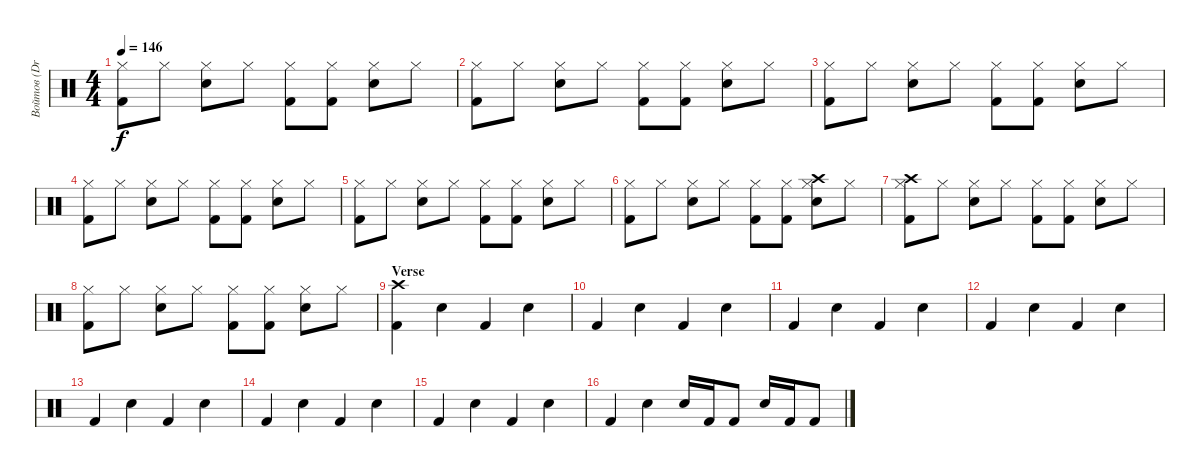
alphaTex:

\track ("Войтов (Drums)" "Войтов (Dr") {instrument percussion}
\staff {score}
\articulation defaults
\ts (4 4)
\tempo 146
\clef neutral
\ks c
("Kick (hit) 2" "Hi-Hat (closed)").8{dy f} "Hi-Hat (closed)".8 ("Electric Snare (hit)" "Hi-Hat (closed)").8 "Hi-Hat (closed)".8 ("Kick (hit) 2" "Hi-Hat (closed)").8 ("Kick (hit) 2" "Hi-Hat (closed)").8 ("Electric Snare (hit)" "Hi-Hat (closed)").8 "Hi-Hat (closed)".8 |
("Kick (hit) 2" "Hi-Hat (closed)").8 "Hi-Hat (closed)".8 ("Electric Snare (hit)" "Hi-Hat (closed)").8 "Hi-Hat (closed)".8 ("Kick (hit) 2" "Hi-Hat (closed)").8 ("Kick (hit) 2" "Hi-Hat (closed)").8 ("Electric Snare (hit)" "Hi-Hat (closed)").8 "Hi-Hat (closed)".8 |
("Kick (hit) 2" "Hi-Hat (closed)").8 "Hi-Hat (closed)".8 ("Electric Snare (hit)" "Hi-Hat (closed)").8 "Hi-Hat (closed)".8 ("Kick (hit) 2" "Hi-Hat (closed)").8 ("Kick (hit) 2" "Hi-Hat (closed)").8 ("Electric Snare (hit)" "Hi-Hat (closed)").8 "Hi-Hat (closed)".8 |
("Kick (hit) 2" "Hi-Hat (closed)").8 "Hi-Hat (closed)".8 ("Electric Snare (hit)" "Hi-Hat (closed)").8 "Hi-Hat (closed)".8 ("Kick (hit) 2" "Hi-Hat (closed)").8 ("Kick (hit) 2" "Hi-Hat (closed)").8 ("Electric Snare (hit)" "Hi-Hat (closed)").8 "Hi-Hat (closed)".8 |
("Kick (hit) 2" "Hi-Hat (closed)").8 "Hi-Hat (closed)".8 ("Electric Snare (hit)" "Hi-Hat (closed)").8 "Hi-Hat (closed)".8 ("Kick (hit) 2" "Hi-Hat (closed)").8 ("Kick (hit) 2" "Hi-Hat (closed)").8 ("Electric Snare (hit)" "Hi-Hat (closed)").8 "Hi-Hat (closed)".8 |
("Kick (hit) 2" "Hi-Hat (closed)").8 "Hi-Hat (closed)".8 ("Electric Snare (hit)" "Hi-Hat (closed)").8 "Hi-Hat (closed)".8 ("Kick (hit) 2" "Hi-Hat (closed)").8 ("Kick (hit) 2" "Hi-Hat (closed)").8 ("Electric Snare (hit)" "Crash high (hit)" "Hi-Hat (closed)").8 "Hi-Hat (closed)".8 |
("Kick (hit) 2" "Crash high (hit)" "Hi-Hat (closed)").8 "Hi-Hat (closed)".8 ("Electric Snare (hit)" "Hi-Hat (closed)").8 "Hi-Hat (closed)".8 ("Kick (hit) 2" "Hi-Hat (closed)").8 ("Kick (hit) 2" "Hi-Hat (closed)").8 ("Electric Snare (hit)" "Hi-Hat (closed)").8 "Hi-Hat (closed)".8 |
("Kick (hit) 2" "Hi-Hat (closed)").8 "Hi-Hat (closed)".8 ("Electric Snare (hit)" "Hi-Hat (closed)").8 "Hi-Hat (closed)".8 ("Kick (hit) 2" "Hi-Hat (closed)").8 ("Kick (hit) 2" "Hi-Hat (closed)").8 ("Electric Snare (hit)" "Hi-Hat (closed)").8 "Hi-Hat (closed)".8 |
\section ("" "Verse")
("Kick (hit) 2" "Crash high (hit)").4 "Electric Snare (hit)".4 "Kick (hit) 2".4 "Electric Snare (hit)".4 |
"Kick (hit) 2".4 "Electric Snare (hit)".4 "Kick (hit) 2".4 "Electric Snare (hit)".4 |
"Kick (hit) 2".4 "Electric Snare (hit)".4 "Kick (hit) 2".4 "Electric Snare (hit)".4 |
"Kick (hit) 2".4 "Electric Snare (hit)".4 "Kick (hit) 2".4 "Electric Snare (hit)".4 |
"Kick (hit) 2".4 "Electric Snare (hit)".4 "Kick (hit) 2".4 "Electric Snare (hit)".4 |
"Kick (hit) 2".4 "Electric Snare (hit)".4 "Kick (hit) 2".4 "Electric Snare (hit)".4 |
"Kick (hit) 2".4 "Electric Snare (hit)".4 "Kick (hit) 2".4 "Electric Snare (hit)".4 |
"Kick (hit) 2".4 "Electric Snare (hit)".4 "Electric Snare (hit)".16 "Kick (hit) 2".16 "Kick (hit) 2".8 "Electric Snare (hit)".16 "Kick (hit) 2".16 "Kick (hit) 2".8
